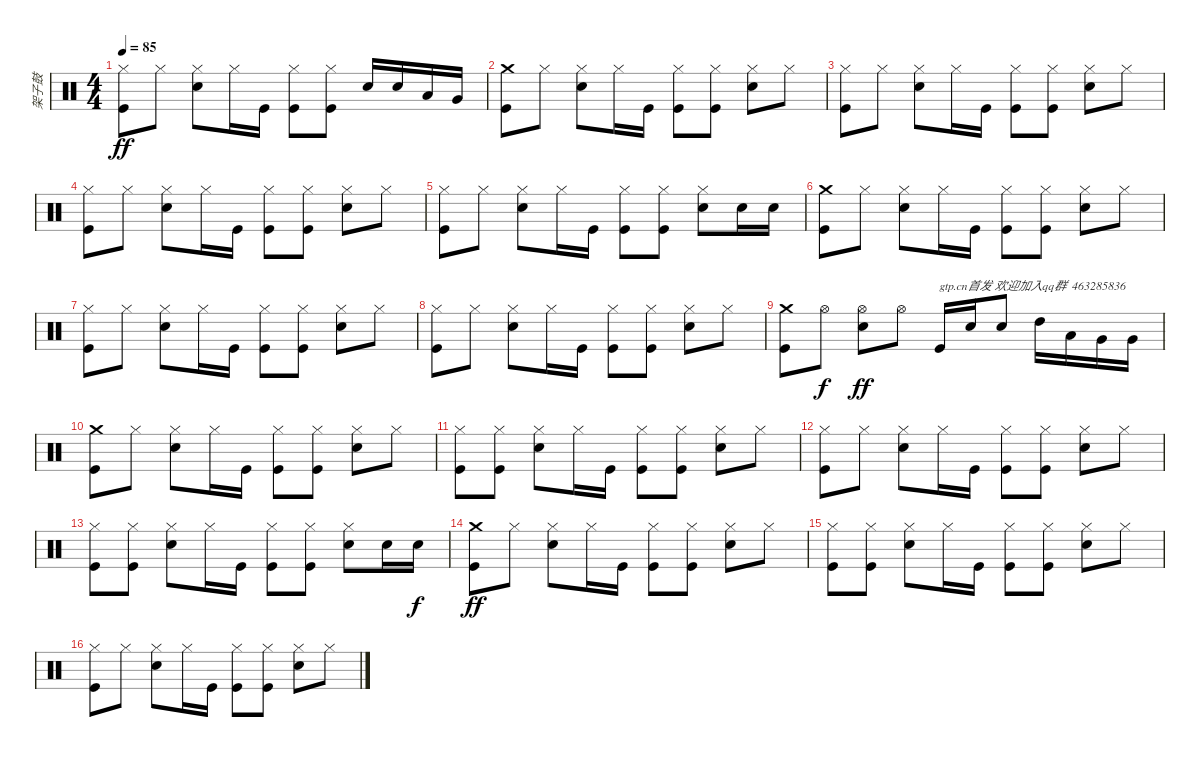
\track ("架子鼓" "架子鼓") {instrument percussion}
\staff {score}
\articulation defaults
\ts (4 4)
\tempo 85
\clef neutral
\ks c
("Hi-Hat (closed)" "Kick (hit)").8{dy ff} "Hi-Hat (closed)".8 ("Hi-Hat (closed)" "Electric Snare (hit)").8 "Hi-Hat (closed)".16 "Kick (hit)".16 ("Hi-Hat (closed)" "Kick (hit)").8 ("Hi-Hat (closed)" "Kick (hit)").8 "Electric Snare (hit)".16 "Electric Snare (hit)".16 "Low Tom (hit)".16 "Very Low Tom (hit)".16 |
("Crash medium (hit)" "Kick (hit)").8 "Hi-Hat (closed)".8 ("Hi-Hat (closed)" "Electric Snare (hit)").8 "Hi-Hat (closed)".16 "Kick (hit)".16 ("Hi-Hat (closed)" "Kick (hit)").8 ("Hi-Hat (closed)" "Kick (hit)").8 ("Hi-Hat (closed)" "Electric Snare (hit)").8 "Hi-Hat (closed)".8 |
("Hi-Hat (closed)" "Kick (hit)").8 "Hi-Hat (closed)".8 ("Hi-Hat (closed)" "Electric Snare (hit)").8 "Hi-Hat (closed)".16 "Kick (hit)".16 ("Hi-Hat (closed)" "Kick (hit)").8 ("Hi-Hat (closed)" "Kick (hit)").8 ("Hi-Hat (closed)" "Electric Snare (hit)").8 "Hi-Hat (closed)".8 |
("Hi-Hat (closed)" "Kick (hit)").8 "Hi-Hat (closed)".8 ("Hi-Hat (closed)" "Electric Snare (hit)").8 "Hi-Hat (closed)".16 "Kick (hit)".16 ("Hi-Hat (closed)" "Kick (hit)").8 ("Hi-Hat (closed)" "Kick (hit)").8 ("Hi-Hat (closed)" "Electric Snare (hit)").8 "Hi-Hat (closed)".8 |
("Hi-Hat (closed)" "Kick (hit)").8 "Hi-Hat (closed)".8 ("Hi-Hat (closed)" "Electric Snare (hit)").8 "Hi-Hat (closed)".16 "Kick (hit)".16 ("Hi-Hat (closed)" "Kick (hit)").8 ("Hi-Hat (closed)" "Kick (hit)").8 ("Hi-Hat (closed)" "Electric Snare (hit)").8 "Electric Snare (hit)".16 "Electric Snare (hit)".16 |
("Crash medium (hit)" "Kick (hit)").8 "Hi-Hat (closed)".8 ("Hi-Hat (closed)" "Electric Snare (hit)").8 "Hi-Hat (closed)".16 "Kick (hit)".16 ("Hi-Hat (closed)" "Kick (hit)").8 ("Hi-Hat (closed)" "Kick (hit)").8 ("Hi-Hat (closed)" "Electric Snare (hit)").8 "Hi-Hat (closed)".8 |
("Hi-Hat (closed)" "Kick (hit)").8 "Hi-Hat (closed)".8 ("Hi-Hat (closed)" "Electric Snare (hit)").8 "Hi-Hat (closed)".16 "Kick (hit)".16 ("Hi-Hat (closed)" "Kick (hit)").8 ("Hi-Hat (closed)" "Kick (hit)").8 ("Hi-Hat (closed)" "Electric Snare (hit)").8 "Hi-Hat (closed)".8 |
("Hi-Hat (closed)" "Kick (hit)").8 "Hi-Hat (closed)".8 ("Hi-Hat (closed)" "Electric Snare (hit)").8 "Hi-Hat (closed)".16 "Kick (hit)".16 ("Hi-Hat (closed)" "Kick (hit)").8 ("Hi-Hat (closed)" "Kick (hit)").8 ("Hi-Hat (closed)" "Electric Snare (hit)").8 "Hi-Hat (closed)".8 |
("Crash medium (hit)" "Kick (hit)").8 "Hi-Hat (open)".8{dy f} ("Hi-Hat (open)" "Electric Snare (hit)").8{dy ff} "Hi-Hat (open)".8 "Kick (hit)".16{txt "gtp.cn首发 欢迎加入qq群  463285836"} "Electric Snare (hit)".16 "Electric Snare (hit)".8 "High Tom (hit)".16 "Low Tom (hit)".16 "Very Low Tom (hit)".16 "Very Low Tom (hit)".16 |
("Crash medium (hit)" "Kick (hit)").8 "Hi-Hat (closed)".8 ("Hi-Hat (closed)" "Electric Snare (hit)").8 "Hi-Hat (closed)".16 "Kick (hit)".16 ("Hi-Hat (closed)" "Kick (hit)").8 ("Hi-Hat (closed)" "Kick (hit)").8 ("Hi-Hat (closed)" "Electric Snare (hit)").8 "Hi-Hat (closed)".8 |
("Hi-Hat (closed)" "Kick (hit)").8 ("Hi-Hat (closed)" "Kick (hit)").8 ("Hi-Hat (closed)" "Electric Snare (hit)").8 "Hi-Hat (closed)".16 "Kick (hit)".16 ("Hi-Hat (closed)" "Kick (hit)").8 ("Hi-Hat (closed)" "Kick (hit)").8 ("Hi-Hat (closed)" "Electric Snare (hit)").8 "Hi-Hat (closed)".8 |
("Hi-Hat (closed)" "Kick (hit)").8 "Hi-Hat (closed)".8 ("Hi-Hat (closed)" "Electric Snare (hit)").8 "Hi-Hat (closed)".16 "Kick (hit)".16 ("Hi-Hat (closed)" "Kick (hit)").8 ("Hi-Hat (closed)" "Kick (hit)").8 ("Hi-Hat (closed)" "Electric Snare (hit)").8 "Hi-Hat (closed)".8 |
("Hi-Hat (closed)" "Kick (hit)").8 ("Hi-Hat (closed)" "Kick (hit)").8 ("Hi-Hat (closed)" "Electric Snare (hit)").8 "Hi-Hat (closed)".16 "Kick (hit)".16 ("Hi-Hat (closed)" "Kick (hit)").8 ("Hi-Hat (closed)" "Kick (hit)").8 ("Hi-Hat (closed)" "Electric Snare (hit)").8 "Electric Snare (hit)".16 "Electric Snare (hit)".16{dy f} |
("Crash medium (hit)" "Kick (hit)").8{dy ff} "Hi-Hat (closed)".8 ("Hi-Hat (closed)" "Electric Snare (hit)").8 "Hi-Hat (closed)".16 "Kick (hit)".16 ("Hi-Hat (closed)" "Kick (hit)").8 ("Hi-Hat (closed)" "Kick (hit)").8 ("Hi-Hat (closed)" "Electric Snare (hit)").8 "Hi-Hat (closed)".8 |
("Hi-Hat (closed)" "Kick (hit)").8 ("Hi-Hat (closed)" "Kick (hit)").8 ("Hi-Hat (closed)" "Electric Snare (hit)").8 "Hi-Hat (closed)".16 "Kick (hit)".16 ("Hi-Hat (closed)" "Kick (hit)").8 ("Hi-Hat (closed)" "Kick (hit)").8 ("Hi-Hat (closed)" "Electric Snare (hit)").8 "Hi-Hat (closed)".8 |
("Hi-Hat (closed)" "Kick (hit)").8 "Hi-Hat (closed)".8 ("Hi-Hat (closed)" "Electric Snare (hit)").8 "Hi-Hat (closed)".16 "Kick (hit)".16 ("Hi-Hat (closed)" "Kick (hit)").8 ("Hi-Hat (closed)" "Kick (hit)").8 ("Hi-Hat (closed)" "Electric Snare (hit)").8 "Hi-Hat (closed)".8
